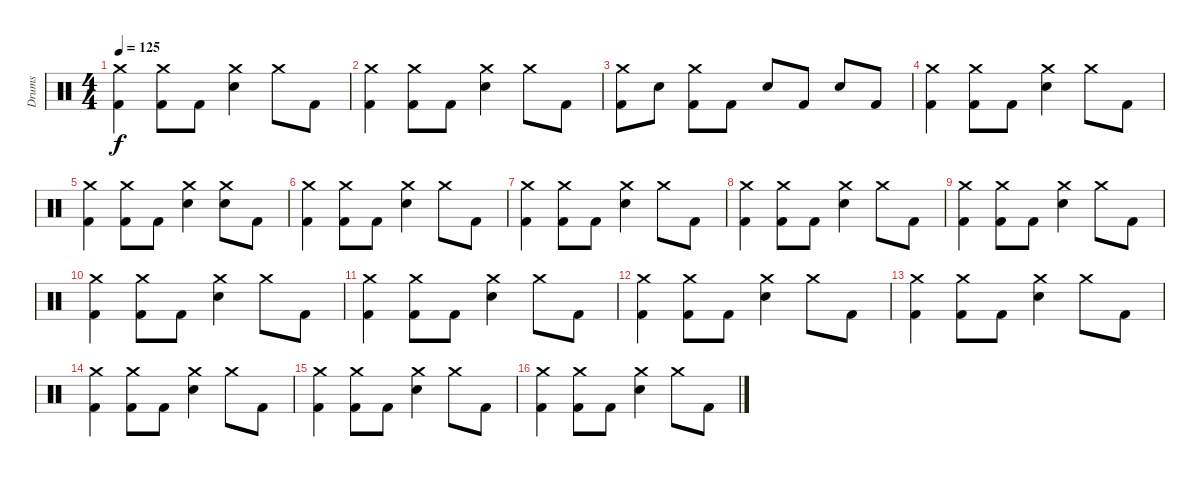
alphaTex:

\track ("Drums" "Drums") {instrument percussion}
\staff {score}
\articulation defaults
\ts (4 4)
\tempo 125
\clef neutral
\ks c
("Crash medium (hit)" "Kick (hit) 2").4{dy f} ("Crash medium (hit)" "Kick (hit) 2").8 "Kick (hit) 2".8 ("Crash medium (hit)" "Snare (hit) 2").4 "Crash medium (hit)".8 "Kick (hit) 2".8 |
("Crash medium (hit)" "Kick (hit) 2").4 ("Crash medium (hit)" "Kick (hit) 2").8 "Kick (hit) 2".8 ("Crash medium (hit)" "Snare (hit) 2").4 "Crash medium (hit)".8 "Kick (hit) 2".8 |
("Crash medium (hit)" "Kick (hit) 2").8 "Snare (hit) 2".8 ("Crash medium (hit)" "Kick (hit) 2").8 "Kick (hit) 2".8 "Snare (hit) 2".8 "Kick (hit) 2".8 "Snare (hit) 2".8 "Kick (hit) 2".8 |
("Crash medium (hit)" "Kick (hit) 2").4 ("Crash medium (hit)" "Kick (hit) 2").8 "Kick (hit) 2".8 ("Crash medium (hit)" "Snare (hit) 2").4 "Crash medium (hit)".8 "Kick (hit) 2".8 |
("Crash medium (hit)" "Kick (hit) 2").4 ("Crash medium (hit)" "Kick (hit) 2").8 "Kick (hit) 2".8 ("Crash medium (hit)" "Snare (hit) 2").4 ("Crash medium (hit)" "Snare (hit) 2").8 "Kick (hit) 2".8 |
("Crash medium (hit)" "Kick (hit) 2").4 ("Crash medium (hit)" "Kick (hit) 2").8 "Kick (hit) 2".8 ("Crash medium (hit)" "Snare (hit) 2").4 "Crash medium (hit)".8 "Kick (hit) 2".8 |
("Crash medium (hit)" "Kick (hit) 2").4 ("Crash medium (hit)" "Kick (hit) 2").8 "Kick (hit) 2".8 ("Crash medium (hit)" "Snare (hit) 2").4 "Crash medium (hit)".8 "Kick (hit) 2".8 |
("Crash medium (hit)" "Kick (hit) 2").4 ("Crash medium (hit)" "Kick (hit) 2").8 "Kick (hit) 2".8 ("Crash medium (hit)" "Snare (hit) 2").4 "Crash medium (hit)".8 "Kick (hit) 2".8 |
("Crash medium (hit)" "Kick (hit) 2").4 ("Crash medium (hit)" "Kick (hit) 2").8 "Kick (hit) 2".8 ("Crash medium (hit)" "Snare (hit) 2").4 "Crash medium (hit)".8 "Kick (hit) 2".8 |
("Crash medium (hit)" "Kick (hit) 2").4 ("Crash medium (hit)" "Kick (hit) 2").8 "Kick (hit) 2".8 ("Crash medium (hit)" "Snare (hit) 2").4 "Crash medium (hit)".8 "Kick (hit) 2".8 |
("Crash medium (hit)" "Kick (hit) 2").4 ("Crash medium (hit)" "Kick (hit) 2").8 "Kick (hit) 2".8 ("Crash medium (hit)" "Snare (hit) 2").4 "Crash medium (hit)".8 "Kick (hit) 2".8 |
("Crash medium (hit)" "Kick (hit) 2").4 ("Crash medium (hit)" "Kick (hit) 2").8 "Kick (hit) 2".8 ("Crash medium (hit)" "Snare (hit) 2").4 "Crash medium (hit)".8 "Kick (hit) 2".8 |
("Crash medium (hit)" "Kick (hit) 2").4 ("Crash medium (hit)" "Kick (hit) 2").8 "Kick (hit) 2".8 ("Crash medium (hit)" "Snare (hit) 2").4 "Crash medium (hit)".8 "Kick (hit) 2".8 |
("Crash medium (hit)" "Kick (hit) 2").4 ("Crash medium (hit)" "Kick (hit) 2").8 "Kick (hit) 2".8 ("Crash medium (hit)" "Snare (hit) 2").4 "Crash medium (hit)".8 "Kick (hit) 2".8 |
("Crash medium (hit)" "Kick (hit) 2").4 ("Crash medium (hit)" "Kick (hit) 2").8 "Kick (hit) 2".8 ("Crash medium (hit)" "Snare (hit) 2").4 "Crash medium (hit)".8 "Kick (hit) 2".8 |
("Crash medium (hit)" "Kick (hit) 2").4 ("Crash medium (hit)" "Kick (hit) 2").8 "Kick (hit) 2".8 ("Crash medium (hit)" "Snare (hit) 2").4 "Crash medium (hit)".8 "Kick (hit) 2".8
